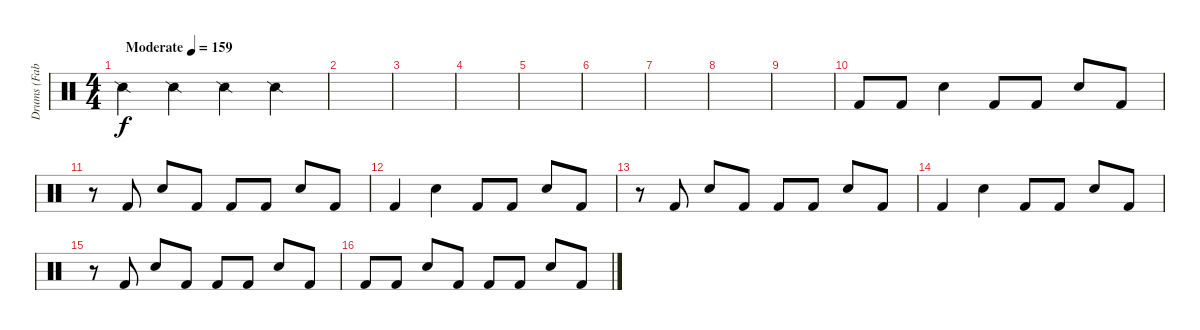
\track ("Drums (Fabio)" "Drums (Fab") {instrument percussion}
\staff {score}
\articulation defaults
\ts (4 4)
\tempo (159 "Moderate")
\clef neutral
\ks c "Snare (side stick) 2".4{dy f} "Snare (side stick) 2".4 "Snare (side stick) 2".4 "Snare (side stick) 2".4
|
|
|
|
|
|
|
|
|
"Kick (hit) 2".8 "Kick (hit) 2".8 "Snare (hit) 2".4 "Kick (hit) 2".8 "Kick (hit) 2".8 "Snare (hit) 2".8 "Kick (hit) 2".8 |
r.8 "Kick (hit) 2".8 "Snare (hit) 2".8 "Kick (hit) 2".8 "Kick (hit) 2".8 "Kick (hit) 2".8 "Snare (hit) 2".8 "Kick (hit) 2".8 |
"Kick (hit) 2".4 "Snare (hit) 2".4 "Kick (hit) 2".8 "Kick (hit) 2".8 "Snare (hit) 2".8 "Kick (hit) 2".8 |
r.8 "Kick (hit) 2".8 "Snare (hit) 2".8 "Kick (hit) 2".8 "Kick (hit) 2".8 "Kick (hit) 2".8 "Snare (hit) 2".8 "Kick (hit) 2".8 |
"Kick (hit) 2".4 "Snare (hit) 2".4 "Kick (hit) 2".8 "Kick (hit) 2".8 "Snare (hit) 2".8 "Kick (hit) 2".8 |
r.8 "Kick (hit) 2".8 "Snare (hit) 2".8 "Kick (hit) 2".8 "Kick (hit) 2".8 "Kick (hit) 2".8 "Snare (hit) 2".8 "Kick (hit) 2".8 |
"Kick (hit) 2".8 "Kick (hit) 2".8 "Snare (hit) 2".8 "Kick (hit) 2".8 "Kick (hit) 2".8 "Kick (hit) 2".8 "Snare (hit) 2".8 "Kick (hit) 2".8
